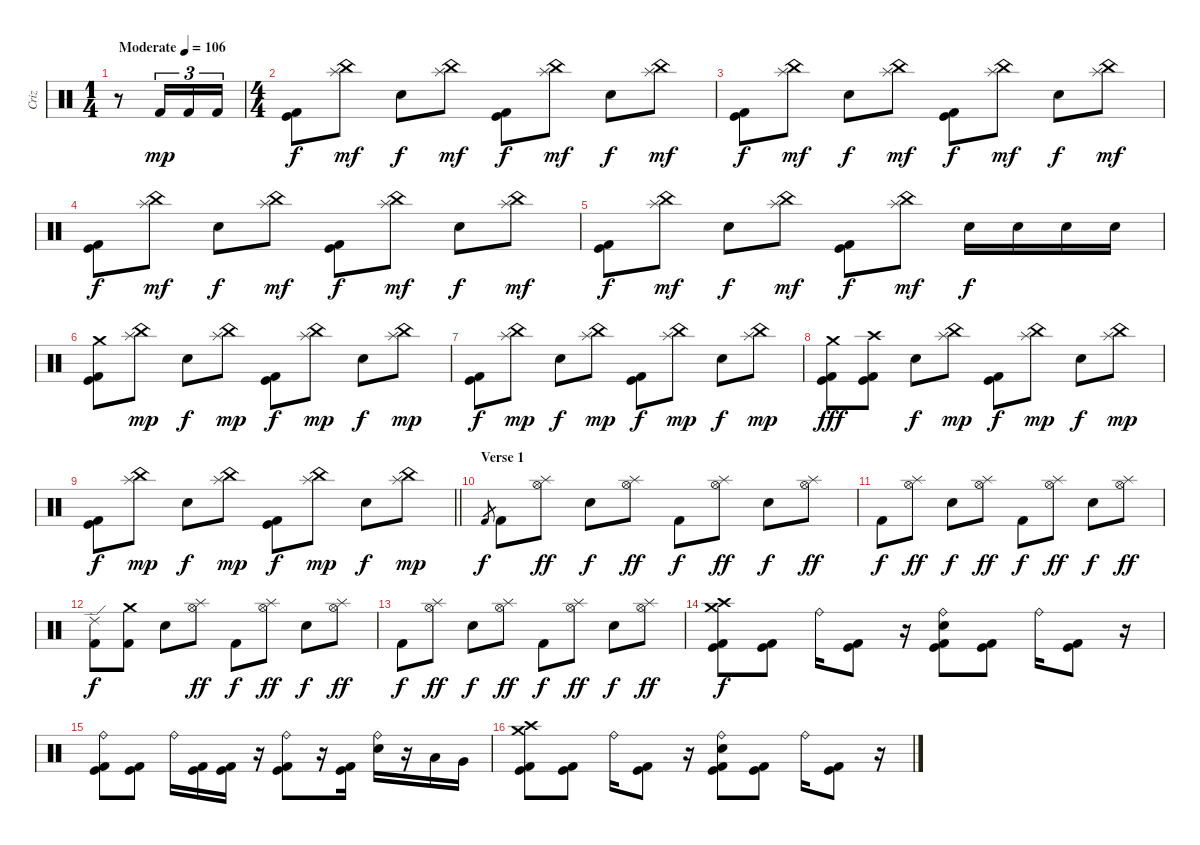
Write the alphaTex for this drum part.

\track ("Criz" "Criz") {instrument percussion}
\staff {score}
\articulation defaults
\ts (1 4)
\tempo (106 "Moderate")
\clef neutral
\ks c
r.8{dy mp} "Kick (hit) 2".16{tu (3 2)} "Kick (hit) 2".16{tu (3 2)} "Kick (hit) 2".16{tu (3 2)} |
\ts (4 4)
("Kick (hit)" "Kick (hit) 2").8{dy f} ("Splash (hit)" "China (hit)").8{dy mf} "Snare (hit) 2".8{dy f} ("Splash (hit)" "China (hit)").8{dy mf} ("Kick (hit)" "Kick (hit) 2").8{dy f} ("Splash (hit)" "China (hit)").8{dy mf} "Snare (hit) 2".8{dy f} ("Splash (hit)" "China (hit)").8{dy mf} |
("Kick (hit)" "Kick (hit) 2").8{dy f} ("Splash (hit)" "China (hit)").8{dy mf} "Snare (hit) 2".8{dy f} ("Splash (hit)" "China (hit)").8{dy mf} ("Kick (hit)" "Kick (hit) 2").8{dy f} ("Splash (hit)" "China (hit)").8{dy mf} "Snare (hit) 2".8{dy f} ("Splash (hit)" "China (hit)").8{dy mf} |
("Kick (hit)" "Kick (hit) 2").8{dy f} ("Splash (hit)" "China (hit)").8{dy mf} "Snare (hit) 2".8{dy f} ("Splash (hit)" "China (hit)").8{dy mf} ("Kick (hit)" "Kick (hit) 2").8{dy f} ("Splash (hit)" "China (hit)").8{dy mf} "Snare (hit) 2".8{dy f} ("Splash (hit)" "China (hit)").8{dy mf} |
("Kick (hit)" "Kick (hit) 2").8{dy f} ("Splash (hit)" "China (hit)").8{dy mf} "Snare (hit) 2".8{dy f} ("Splash (hit)" "China (hit)").8{dy mf} ("Kick (hit)" "Kick (hit) 2").8{dy f} ("Splash (hit)" "China (hit)").8{dy mf} "Snare (hit) 2".16{dy f} "Snare (hit) 2".16 "Snare (hit) 2".16 "Snare (hit) 2".16 |
("Crash medium (hit)" "Kick (hit)" "Kick (hit) 2").8 ("Splash (hit)" "China (hit)").8{dy mp} "Snare (hit) 2".8{dy f} ("Splash (hit)" "China (hit)").8{dy mp} ("Kick (hit)" "Kick (hit) 2").8{dy f} ("Splash (hit)" "China (hit)").8{dy mp} "Snare (hit) 2".8{dy f} ("Splash (hit)" "China (hit)").8{dy mp} |
("Kick (hit)" "Kick (hit) 2").8{dy f} ("Splash (hit)" "China (hit)").8{dy mp} "Snare (hit) 2".8{dy f} ("Splash (hit)" "China (hit)").8{dy mp} ("Kick (hit)" "Kick (hit) 2").8{dy f} ("Splash (hit)" "China (hit)").8{dy mp} "Snare (hit) 2".8{dy f} ("Splash (hit)" "China (hit)").8{dy mp} |
("Crash medium (hit)" "Kick (hit)" "Kick (hit) 2").8{dy fff} ("Crash high (hit)" "Kick (hit)" "Kick (hit) 2").8 "Snare (hit) 2".8{dy f} ("Splash (hit)" "China (hit)").8{dy mp} ("Kick (hit)" "Kick (hit) 2").8{dy f} ("Splash (hit)" "China (hit)").8{dy mp} "Snare (hit) 2".8{dy f} ("Splash (hit)" "China (hit)").8{dy mp} |
\barLineRight lightlight
("Kick (hit)" "Kick (hit) 2").8{dy f} ("Splash (hit)" "China (hit)").8{dy mp} "Snare (hit) 2".8{dy f} ("Splash (hit)" "China (hit)").8{dy mp} ("Kick (hit)" "Kick (hit) 2").8{dy f} ("Splash (hit)" "China (hit)").8{dy mp} "Snare (hit) 2".8{dy f} ("Splash (hit)" "China (hit)").8{dy mp} |
\section ("" "Verse 1")
"Kick (hit) 2".8{gr dy f} "Kick (hit) 2".8 ("Splash (hit)" "Hi-Hat (open)").8{dy ff} "Snare (hit) 2".8{dy f} ("Splash (hit)" "Hi-Hat (open)").8{dy ff} "Kick (hit) 2".8{dy f} ("Splash (hit)" "Hi-Hat (open)").8{dy ff} "Snare (hit) 2".8{dy f} ("Splash (hit)" "Hi-Hat (open)").8{dy ff} |
"Kick (hit) 2".8{dy f} ("Splash (hit)" "Hi-Hat (open)").8{dy ff} "Snare (hit) 2".8{dy f} ("Splash (hit)" "Hi-Hat (open)").8{dy ff} "Kick (hit) 2".8{dy f} ("Splash (hit)" "Hi-Hat (open)").8{dy ff} "Snare (hit) 2".8{dy f} ("Splash (hit)" "Hi-Hat (open)").8{dy ff} |
("Ride (edge) 2" "Kick (hit) 2").8{dy f} ("Crash medium (hit)" "Kick (hit) 2").8 "Snare (hit) 2".8 ("Splash (hit)" "Hi-Hat (open)").8{dy ff} "Kick (hit) 2".8{dy f} ("Splash (hit)" "Hi-Hat (open)").8{dy ff} "Snare (hit) 2".8{dy f} ("Splash (hit)" "Hi-Hat (open)").8{dy ff} |
"Kick (hit) 2".8{dy f} ("Splash (hit)" "Hi-Hat (open)").8{dy ff} "Snare (hit) 2".8{dy f} ("Splash (hit)" "Hi-Hat (open)").8{dy ff} "Kick (hit) 2".8{dy f} ("Splash (hit)" "Hi-Hat (open)").8{dy ff} "Snare (hit) 2".8{dy f} ("Splash (hit)" "Hi-Hat (open)").8{dy ff} |
("Crash high (hit)" "Crash medium (hit)" "Kick (hit)" "Kick (hit) 2").8{dy f} ("Kick (hit)" "Kick (hit) 2").8 "Ride (bell)".16 ("Kick (hit)" "Kick (hit) 2").8 r.16 ("Ride (bell)" "Snare (hit) 2" "Kick (hit)" "Kick (hit) 2").8 ("Kick (hit)" "Kick (hit) 2").8 "Ride (bell)".16 ("Kick (hit)" "Kick (hit) 2").8 r.16 |
("Ride (bell)" "Kick (hit)" "Kick (hit) 2").8 ("Kick (hit)" "Kick (hit) 2").8 "Ride (bell)".16 ("Kick (hit)" "Kick (hit) 2").16 ("Kick (hit)" "Kick (hit) 2").16 r.16 ("Ride (bell)" "Kick (hit)" "Kick (hit) 2").8 r.16 ("Kick (hit)" "Kick (hit) 2").16 ("Ride (bell)" "Snare (hit) 2").16 r.16 "Low Tom (hit)".16 "Very Low Tom (hit)".16 |
("Crash high (hit)" "Crash medium (hit)" "Kick (hit)" "Kick (hit) 2").8 ("Kick (hit)" "Kick (hit) 2").8 "Ride (bell)".16 ("Kick (hit)" "Kick (hit) 2").8 r.16 ("Ride (bell)" "Snare (hit) 2" "Kick (hit)" "Kick (hit) 2").8 ("Kick (hit)" "Kick (hit) 2").8 "Ride (bell)".16 ("Kick (hit)" "Kick (hit) 2").8 r.16
